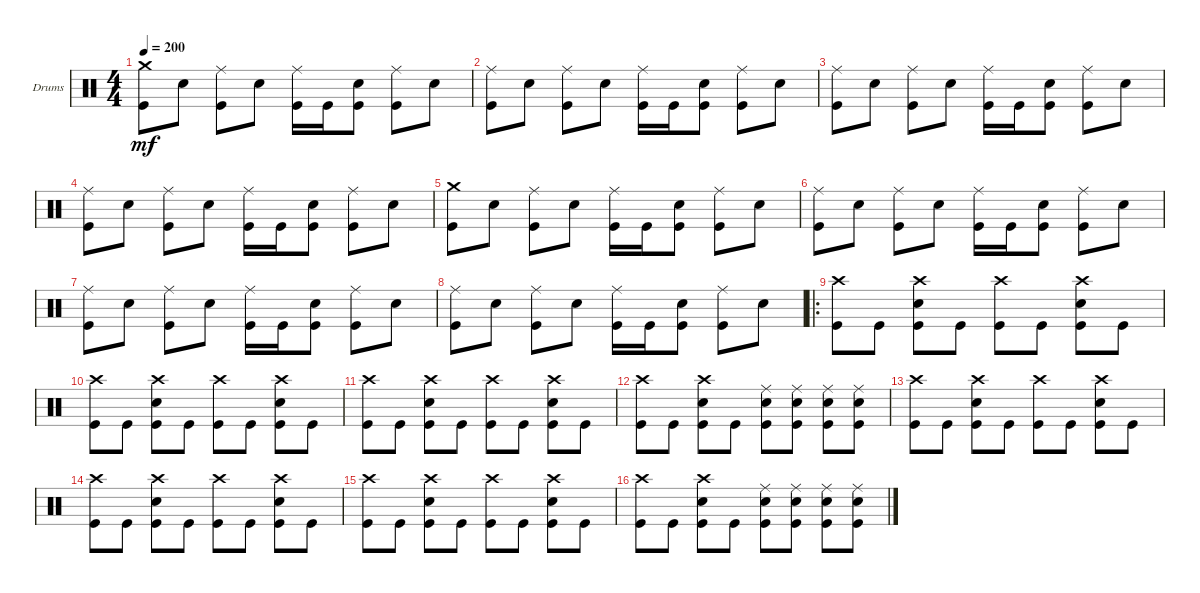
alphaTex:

\bracketExtendMode groupsimilarinstruments
\firstSystemTrackNameOrientation horizontal
\otherSystemsTrackNameOrientation horizontal
\track ("Drumkit" "Drums") {instrument percussion}
\staff {score}
\articulation defaults
\ts (4 4)
\tempo 200
\clef neutral
\ks c
("Kick (hit)" "Crash medium (hit)").8{dy mf} "Snare (hit) 2".8 ("Kick (hit)" "Ride (middle)").8 "Snare (hit) 2".8 ("Kick (hit)" "Ride (middle)").16 "Kick (hit)".16 ("Snare (hit) 2" "Kick (hit)").8 ("Kick (hit)" "Ride (middle)").8 "Snare (hit) 2".8 |
("Kick (hit)" "Ride (middle)").8 "Snare (hit) 2".8 ("Kick (hit)" "Ride (middle)").8 "Snare (hit) 2".8 ("Kick (hit)" "Ride (middle)").16 "Kick (hit)".16 ("Snare (hit) 2" "Kick (hit)").8 ("Kick (hit)" "Ride (middle)").8 "Snare (hit) 2".8 |
("Kick (hit)" "Ride (middle)").8 "Snare (hit) 2".8 ("Kick (hit)" "Ride (middle)").8 "Snare (hit) 2".8 ("Kick (hit)" "Ride (middle)").16 "Kick (hit)".16 ("Snare (hit) 2" "Kick (hit)").8 ("Kick (hit)" "Ride (middle)").8 "Snare (hit) 2".8 |
("Kick (hit)" "Ride (middle)").8 "Snare (hit) 2".8 ("Kick (hit)" "Ride (middle)").8 "Snare (hit) 2".8 ("Kick (hit)" "Ride (middle)").16 "Kick (hit)".16 ("Snare (hit) 2" "Kick (hit)").8 ("Kick (hit)" "Ride (middle)").8 "Snare (hit) 2".8 |
("Kick (hit)" "Crash medium (hit)").8 "Snare (hit) 2".8 ("Kick (hit)" "Ride (middle)").8 "Snare (hit) 2".8 ("Kick (hit)" "Ride (middle)").16 "Kick (hit)".16 ("Snare (hit) 2" "Kick (hit)").8 ("Kick (hit)" "Ride (middle)").8 "Snare (hit) 2".8 |
("Kick (hit)" "Ride (middle)").8 "Snare (hit) 2".8 ("Kick (hit)" "Ride (middle)").8 "Snare (hit) 2".8 ("Kick (hit)" "Ride (middle)").16 "Kick (hit)".16 ("Snare (hit) 2" "Kick (hit)").8 ("Kick (hit)" "Ride (middle)").8 "Snare (hit) 2".8 |
("Kick (hit)" "Ride (middle)").8 "Snare (hit) 2".8 ("Kick (hit)" "Ride (middle)").8 "Snare (hit) 2".8 ("Kick (hit)" "Ride (middle)").16 "Kick (hit)".16 ("Snare (hit) 2" "Kick (hit)").8 ("Kick (hit)" "Ride (middle)").8 "Snare (hit) 2".8 |
("Kick (hit)" "Ride (middle)").8 "Snare (hit) 2".8 ("Kick (hit)" "Ride (middle)").8 "Snare (hit) 2".8 ("Kick (hit)" "Ride (middle)").16 "Kick (hit)".16 ("Snare (hit) 2" "Kick (hit)").8 ("Kick (hit)" "Ride (middle)").8 "Snare (hit) 2".8 |
\ro
("Kick (hit)" "Crash high (hit)").8 "Kick (hit)".8 ("Kick (hit)" "Snare (hit) 2" "Crash high (hit)").8 "Kick (hit)".8 ("Kick (hit)" "Crash high (hit)").8 "Kick (hit)".8 ("Kick (hit)" "Snare (hit) 2" "Crash high (hit)").8 "Kick (hit)".8 |
("Kick (hit)" "Crash high (hit)").8 "Kick (hit)".8 ("Kick (hit)" "Snare (hit) 2" "Crash high (hit)").8 "Kick (hit)".8 ("Kick (hit)" "Crash high (hit)").8 "Kick (hit)".8 ("Kick (hit)" "Snare (hit) 2" "Crash high (hit)").8 "Kick (hit)".8 |
("Kick (hit)" "Crash high (hit)").8 "Kick (hit)".8 ("Kick (hit)" "Snare (hit) 2" "Crash high (hit)").8 "Kick (hit)".8 ("Kick (hit)" "Crash high (hit)").8 "Kick (hit)".8 ("Kick (hit)" "Snare (hit) 2" "Crash high (hit)").8 "Kick (hit)".8 |
("Kick (hit)" "Crash high (hit)").8 "Kick (hit)".8 ("Kick (hit)" "Snare (hit) 2" "Crash high (hit)").8 "Kick (hit)".8 ("Kick (hit)" "Snare (hit) 2" "Ride (middle)").8 ("Kick (hit)" "Snare (hit) 2" "Ride (middle)").8 ("Kick (hit)" "Snare (hit) 2" "Ride (middle)").8 ("Kick (hit)" "Snare (hit) 2" "Ride (middle)").8 |
("Kick (hit)" "Crash high (hit)").8 "Kick (hit)".8 ("Kick (hit)" "Snare (hit) 2" "Crash high (hit)").8 "Kick (hit)".8 ("Kick (hit)" "Crash high (hit)").8 "Kick (hit)".8 ("Kick (hit)" "Snare (hit) 2" "Crash high (hit)").8 "Kick (hit)".8 |
("Kick (hit)" "Crash high (hit)").8 "Kick (hit)".8 ("Kick (hit)" "Snare (hit) 2" "Crash high (hit)").8 "Kick (hit)".8 ("Kick (hit)" "Crash high (hit)").8 "Kick (hit)".8 ("Kick (hit)" "Snare (hit) 2" "Crash high (hit)").8 "Kick (hit)".8 |
("Kick (hit)" "Crash high (hit)").8 "Kick (hit)".8 ("Kick (hit)" "Snare (hit) 2" "Crash high (hit)").8 "Kick (hit)".8 ("Kick (hit)" "Crash high (hit)").8 "Kick (hit)".8 ("Kick (hit)" "Snare (hit) 2" "Crash high (hit)").8 "Kick (hit)".8 |
("Kick (hit)" "Crash high (hit)").8 "Kick (hit)".8 ("Kick (hit)" "Snare (hit) 2" "Crash high (hit)").8 "Kick (hit)".8 ("Kick (hit)" "Snare (hit) 2" "Ride (middle)").8 ("Kick (hit)" "Snare (hit) 2" "Ride (middle)").8 ("Kick (hit)" "Snare (hit) 2" "Ride (middle)").8 ("Kick (hit)" "Snare (hit) 2" "Ride (middle)").8
